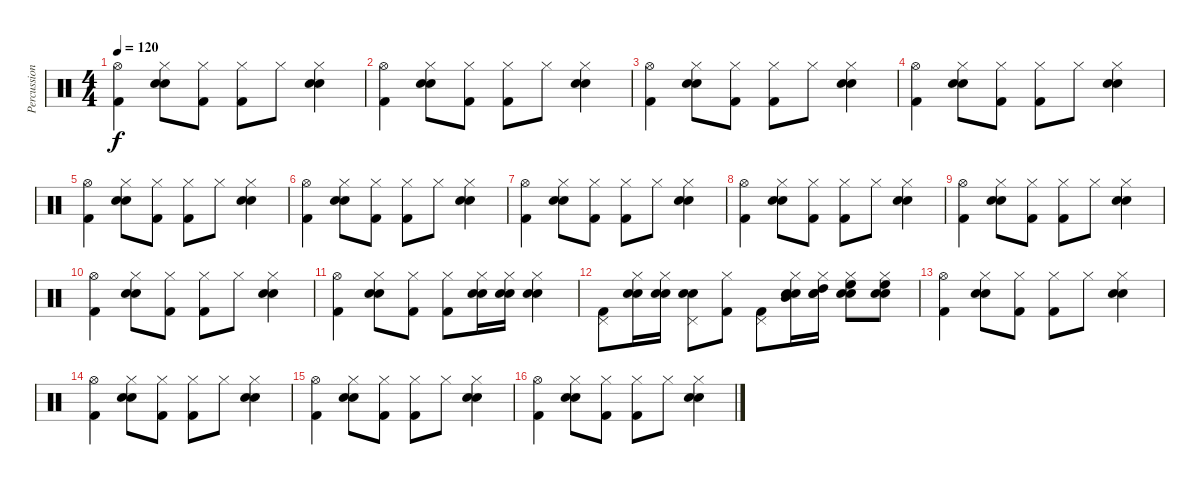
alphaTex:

\track ("Percussions" "Percussion") {instrument percussion}
\staff {score}
\articulation defaults
\ts (4 4)
\tempo 120
\clef neutral
\ks c
("Hi-Hat (open)" "Kick (hit) 2").4{dy f} ("Hi-Hat (closed)" "Electric Snare (hit)" "Snare (hit) 2").8 ("Hi-Hat (closed)" "Kick (hit) 2").8 ("Hi-Hat (closed)" "Kick (hit) 2").8 "Hi-Hat (closed)".8 ("Hi-Hat (closed)" "Electric Snare (hit)" "Snare (hit) 2").4 |
("Hi-Hat (open)" "Kick (hit) 2").4 ("Hi-Hat (closed)" "Electric Snare (hit)" "Snare (hit) 2").8 ("Hi-Hat (closed)" "Kick (hit) 2").8 ("Hi-Hat (closed)" "Kick (hit) 2").8 "Hi-Hat (closed)".8 ("Hi-Hat (closed)" "Electric Snare (hit)" "Snare (hit) 2").4 |
("Hi-Hat (open)" "Kick (hit) 2").4 ("Hi-Hat (closed)" "Electric Snare (hit)" "Snare (hit) 2").8 ("Hi-Hat (closed)" "Kick (hit) 2").8 ("Hi-Hat (closed)" "Kick (hit) 2").8 "Hi-Hat (closed)".8 ("Hi-Hat (closed)" "Electric Snare (hit)" "Snare (hit) 2").4 |
("Hi-Hat (open)" "Kick (hit) 2").4 ("Hi-Hat (closed)" "Electric Snare (hit)" "Snare (hit) 2").8 ("Hi-Hat (closed)" "Kick (hit) 2").8 ("Hi-Hat (closed)" "Kick (hit) 2").8 "Hi-Hat (closed)".8 ("Hi-Hat (closed)" "Electric Snare (hit)" "Snare (hit) 2").4 |
("Hi-Hat (open)" "Kick (hit) 2").4 ("Hi-Hat (closed)" "Electric Snare (hit)" "Snare (hit) 2").8 ("Hi-Hat (closed)" "Kick (hit) 2").8 ("Hi-Hat (closed)" "Kick (hit) 2").8 "Hi-Hat (closed)".8 ("Hi-Hat (closed)" "Electric Snare (hit)" "Snare (hit) 2").4 |
("Hi-Hat (open)" "Kick (hit) 2").4 ("Hi-Hat (closed)" "Electric Snare (hit)" "Snare (hit) 2").8 ("Hi-Hat (closed)" "Kick (hit) 2").8 ("Hi-Hat (closed)" "Kick (hit) 2").8 "Hi-Hat (closed)".8 ("Hi-Hat (closed)" "Electric Snare (hit)" "Snare (hit) 2").4 |
("Hi-Hat (open)" "Kick (hit) 2").4 ("Hi-Hat (closed)" "Electric Snare (hit)" "Snare (hit) 2").8 ("Hi-Hat (closed)" "Kick (hit) 2").8 ("Hi-Hat (closed)" "Kick (hit) 2").8 "Hi-Hat (closed)".8 ("Hi-Hat (closed)" "Electric Snare (hit)" "Snare (hit) 2").4 |
("Hi-Hat (open)" "Kick (hit) 2").4 ("Hi-Hat (closed)" "Electric Snare (hit)" "Snare (hit) 2").8 ("Hi-Hat (closed)" "Kick (hit) 2").8 ("Hi-Hat (closed)" "Kick (hit) 2").8 "Hi-Hat (closed)".8 ("Hi-Hat (closed)" "Electric Snare (hit)" "Snare (hit) 2").4 |
("Hi-Hat (open)" "Kick (hit) 2").4 ("Hi-Hat (closed)" "Electric Snare (hit)" "Snare (hit) 2").8 ("Hi-Hat (closed)" "Kick (hit) 2").8 ("Hi-Hat (closed)" "Kick (hit) 2").8 "Hi-Hat (closed)".8 ("Hi-Hat (closed)" "Electric Snare (hit)" "Snare (hit) 2").4 |
("Hi-Hat (open)" "Kick (hit) 2").4 ("Hi-Hat (closed)" "Electric Snare (hit)" "Snare (hit) 2").8 ("Hi-Hat (closed)" "Kick (hit) 2").8 ("Hi-Hat (closed)" "Kick (hit) 2").8 "Hi-Hat (closed)".8 ("Hi-Hat (closed)" "Electric Snare (hit)" "Snare (hit) 2").4 |
("Hi-Hat (open)" "Kick (hit) 2").4 ("Hi-Hat (closed)" "Electric Snare (hit)" "Snare (hit) 2").8 ("Hi-Hat (closed)" "Kick (hit) 2").8 ("Hi-Hat (closed)" "Kick (hit) 2").8 ("Hi-Hat (closed)" "Electric Snare (hit)" "Snare (hit) 2").16 ("Hi-Hat (closed)" "Electric Snare (hit)" "Snare (hit) 2").16 ("Hi-Hat (closed)" "Electric Snare (hit)" "Snare (hit) 2").4 |
("Pedal Hi-Hat (hit)" "Kick (hit) 2").8 ("Hi-Hat (closed)" "Electric Snare (hit)" "Snare (hit) 2").16 ("Hi-Hat (closed)" "Electric Snare (hit)" "Snare (hit) 2").16 ("Pedal Hi-Hat (hit)" "Electric Snare (hit)" "Snare (hit) 2").8 ("Hi-Hat (closed)" "Kick (hit) 2").8 ("Pedal Hi-Hat (hit)" "Kick (hit) 2").8 ("Hi-Hat (closed)" "Mid Tom (hit)" "Electric Snare (hit)" "Snare (hit) 2").16 ("Hi-Hat (closed)" "High Tom (hit)" "Electric Snare (hit)" "Snare (hit) 2").16 ("Hi-Hat (closed)" "High Floor Tom (hit)" "Electric Snare (hit)" "Snare (hit) 2").8 ("Hi-Hat (closed)" "High Floor Tom (hit)" "Electric Snare (hit)" "Snare (hit) 2").8 |
("Hi-Hat (open)" "Kick (hit) 2").4 ("Hi-Hat (closed)" "Electric Snare (hit)" "Snare (hit) 2").8 ("Hi-Hat (closed)" "Kick (hit) 2").8 ("Hi-Hat (closed)" "Kick (hit) 2").8 "Hi-Hat (closed)".8 ("Hi-Hat (closed)" "Electric Snare (hit)" "Snare (hit) 2").4 |
("Hi-Hat (open)" "Kick (hit) 2").4 ("Hi-Hat (closed)" "Electric Snare (hit)" "Snare (hit) 2").8 ("Hi-Hat (closed)" "Kick (hit) 2").8 ("Hi-Hat (closed)" "Kick (hit) 2").8 "Hi-Hat (closed)".8 ("Hi-Hat (closed)" "Electric Snare (hit)" "Snare (hit) 2").4 |
("Hi-Hat (open)" "Kick (hit) 2").4 ("Hi-Hat (closed)" "Electric Snare (hit)" "Snare (hit) 2").8 ("Hi-Hat (closed)" "Kick (hit) 2").8 ("Hi-Hat (closed)" "Kick (hit) 2").8 "Hi-Hat (closed)".8 ("Hi-Hat (closed)" "Electric Snare (hit)" "Snare (hit) 2").4 |
("Hi-Hat (open)" "Kick (hit) 2").4 ("Hi-Hat (closed)" "Electric Snare (hit)" "Snare (hit) 2").8 ("Hi-Hat (closed)" "Kick (hit) 2").8 ("Hi-Hat (closed)" "Kick (hit) 2").8 "Hi-Hat (closed)".8 ("Hi-Hat (closed)" "Electric Snare (hit)" "Snare (hit) 2").4
